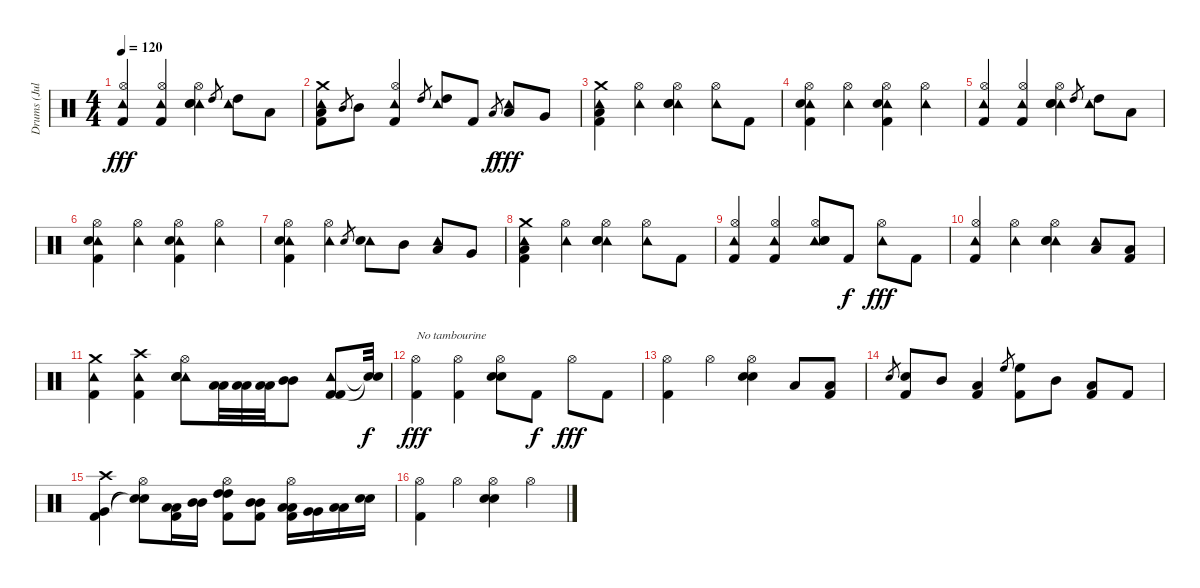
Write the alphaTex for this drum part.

\track ("Drums (Julian Del Rosario)" "Drums (Jul") {instrument percussion}
\staff {score}
\articulation defaults
\ts (4 4)
\tempo 120
\clef neutral
\ks c
("Tambourine (hit)" "Hi-Hat (open)" "Kick (hit) 2").4{dy fff} ("Tambourine (hit)" "Hi-Hat (open)" "Kick (hit) 2").4 ("Tambourine (hit)" "Hi-Hat (open)" "Snare (hit) 2" "Electric Snare (hit)").4 "High Tom (hit)".8{gr} ("Tambourine (hit)" "High Tom (hit)").8 "Low Tom (hit)".8 |
("Tambourine (hit)" "Crash medium (hit)" "Low Floor Tom (hit)" "Kick (hit) 2").8 "Mid Tom (hit)".8{gr} "Mid Tom (hit)".8 ("Tambourine (hit)" "Hi-Hat (open)" "Kick (hit) 2").4 "High Tom (hit)".8{gr} ("Tambourine (hit)" "High Tom (hit)").8 "Kick (hit) 2".8 "Low Tom (hit)".8{gr dy f} ("Tambourine (hit)" "Low Tom (hit)").8{dy fff} "Very Low Tom (hit)".8 |
("Tambourine (hit)" "Crash medium (hit)" "Low Floor Tom (hit)" "Kick (hit) 2").4 ("Tambourine (hit)" "Hi-Hat (open)").4 ("Tambourine (hit)" "Hi-Hat (open)" "Snare (hit) 2" "Electric Snare (hit)").4 ("Tambourine (hit)" "Hi-Hat (open)").8 "Kick (hit) 2".8 |
("Tambourine (hit)" "Hi-Hat (open)" "Snare (hit) 2" "Kick (hit) 2").4 ("Tambourine (hit)" "Hi-Hat (open)").4 ("Tambourine (hit)" "Hi-Hat (open)" "Electric Snare (hit)" "Kick (hit) 2").4 ("Tambourine (hit)" "Hi-Hat (open)").4 |
("Tambourine (hit)" "Hi-Hat (open)" "Kick (hit) 2").4 ("Tambourine (hit)" "Hi-Hat (open)" "Kick (hit) 2").4 ("Tambourine (hit)" "Hi-Hat (open)" "Snare (hit) 2" "Electric Snare (hit)").4 "High Tom (hit)".8{gr} ("Tambourine (hit)" "High Tom (hit)").8 "Low Tom (hit)".8 |
("Tambourine (hit)" "Hi-Hat (open)" "Snare (hit) 2" "Kick (hit) 2").4 ("Tambourine (hit)" "Hi-Hat (open)").4 ("Tambourine (hit)" "Hi-Hat (open)" "Electric Snare (hit)" "Kick (hit) 2").4 ("Tambourine (hit)" "Hi-Hat (open)").4 |
("Tambourine (hit)" "Hi-Hat (open)" "Snare (hit) 2" "Kick (hit) 2").4 ("Tambourine (hit)" "Hi-Hat (open)").4 "Snare (hit) 2".8{gr} ("Tambourine (hit)" "Snare (hit) 2").8 "Mid Tom (hit)".8 ("Tambourine (hit)" "Low Tom (hit)").8 "Very Low Tom (hit)".8 |
("Tambourine (hit)" "Crash medium (hit)" "Low Floor Tom (hit)" "Kick (hit) 2").4 ("Tambourine (hit)" "Hi-Hat (open)").4 ("Tambourine (hit)" "Hi-Hat (open)" "Snare (hit) 2" "Electric Snare (hit)").4 ("Tambourine (hit)" "Hi-Hat (open)").8 "Kick (hit) 2".8 |
("Tambourine (hit)" "Hi-Hat (open)" "Kick (hit) 2").4 ("Tambourine (hit)" "Hi-Hat (open)" "Kick (hit) 2").4 ("Tambourine (hit)" "Hi-Hat (open)" "Snare (hit) 2" "Electric Snare (hit)").8 "Kick (hit) 2".8{dy f} ("Tambourine (hit)" "Hi-Hat (open)").8{dy fff} "Kick (hit) 2".8 |
("Tambourine (hit)" "Hi-Hat (open)" "Kick (hit) 2").4 ("Tambourine (hit)" "Hi-Hat (open)").4 ("Tambourine (hit)" "Hi-Hat (open)" "Snare (hit) 2" "Electric Snare (hit)").4 ("Tambourine (hit)" "Low Floor Tom (hit)").8 ("Low Floor Tom (hit)" "Kick (hit) 2").8 |
("Tambourine (hit)" "Crash medium (hit)" "Kick (hit) 2").4 ("Tambourine (hit)" "Crash high (hit)" "Kick (hit) 2").4 ("Tambourine (hit)" "Hi-Hat (open)" "Snare (hit) 2" "Electric Snare (hit)").8 ("Low Tom (hit)" "Low Tom (hit)").32 ("Low Tom (hit)" "Low Tom (hit)").32 ("Low Tom (hit)" "Low Tom (hit)").32 ("Mid Tom (hit)" "Mid Tom (hit)").8 ("Tambourine (hit)" "Kick (hit) 2" "Kick (hit) 2").8 ("Snare (hit)"{t} "Snare (hit)"{t}).32{dy f} |
("Hi-Hat (open)" "Kick (hit) 2").4{txt "No tambourine" dy fff} ("Hi-Hat (open)" "Kick (hit) 2").4 ("Hi-Hat (open)" "Snare (hit) 2" "Electric Snare (hit)").8 "Kick (hit) 2".8{dy f} "Hi-Hat (open)".8{dy fff} "Kick (hit) 2".8 |
("Hi-Hat (open)" "Kick (hit) 2").4 "Hi-Hat (open)".4 ("Hi-Hat (open)" "Snare (hit) 2" "Electric Snare (hit)").4 "Low Floor Tom (hit)".8 ("Low Floor Tom (hit)" "Kick (hit) 2").8 |
"Snare (hit) 2".8{gr} ("Snare (hit) 2" "Kick (hit) 2").8{volume 10} "Mid Tom (hit)".8 ("Low Tom (hit)" "Kick (hit) 2").4 "High Floor Tom (hit)".8{gr} ("High Floor Tom (hit)" "Kick (hit) 2").8 "Mid Tom (hit)".8 ("Low Tom (hit)" "Kick (hit) 2").8 "Kick (hit) 2".8 |
("Crash high (hit)" "Very Low Tom (hit)" "Kick (hit) 2").4 ("Hi-Hat (open)" "Snare (hit)"{t} "Snare (hit)"{t}).8 ("Low Tom (hit)" "Low Tom (hit)" "Kick (hit) 2").16 ("Mid Tom (hit)" "Mid Tom (hit)").16 ("Hi-Hat (open)" "High Tom (hit)" "High Tom (hit)" "Kick (hit) 2").8 ("Mid Tom (hit)" "Mid Tom (hit)" "Kick (hit) 2").8 ("Hi-Hat (open)" "Low Tom (hit)" "Low Tom (hit)" "Kick (hit) 2").16 ("Very Low Tom (hit)" "Very Low Tom (hit)").16 ("Low Floor Tom (hit)" "Low Floor Tom (hit)").16 ("Snare (hit) 2" "Snare (hit) 2").16 |
("Hi-Hat (open)" "Kick (hit) 2").4{volume 6} "Hi-Hat (open)".4 ("Hi-Hat (open)" "Snare (hit) 2" "Electric Snare (hit)").4 "Hi-Hat (open)".4
